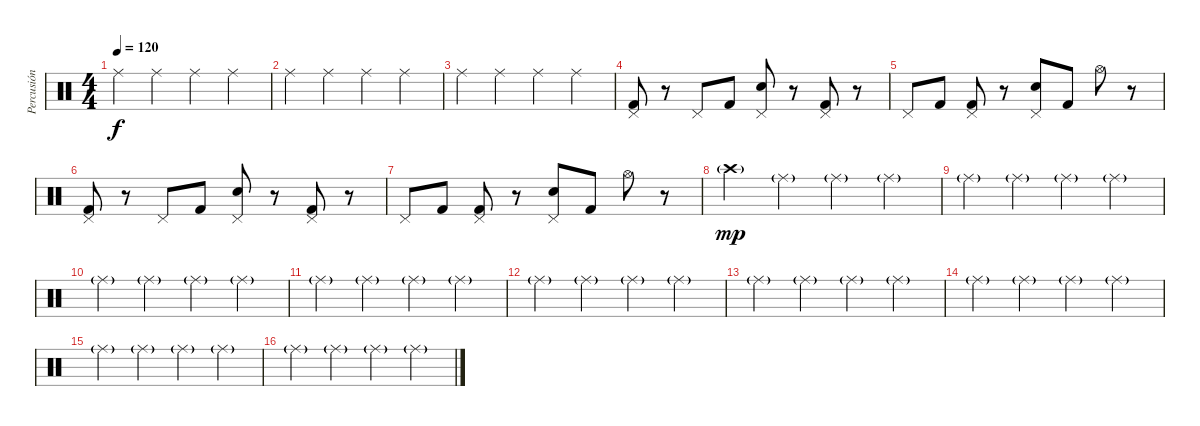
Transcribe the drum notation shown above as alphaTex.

\track ("Percusión" "Percusión") {instrument percussion}
\staff {score}
\articulation defaults
\ts (4 4)
\tempo 120
\clef neutral
\ks c "Ride (middle)".4{dy f} "Ride (middle)".4 "Ride (middle)".4 "Ride (middle)".4
|
"Ride (middle)".4 "Ride (middle)".4 "Ride (middle)".4 "Ride (middle)".4 |
"Ride (middle)".4 "Ride (middle)".4 "Ride (middle)".4 "Ride (middle)".4 |
("Pedal Hi-Hat (hit)" "Kick (hit) 2").8 r.8 "Pedal Hi-Hat (hit)".8 "Kick (hit) 2".8 ("Pedal Hi-Hat (hit)" "Electric Snare (hit)").8 r.8 ("Pedal Hi-Hat (hit)" "Kick (hit) 2").8 r.8 |
"Pedal Hi-Hat (hit)".8 "Kick (hit) 2".8 ("Pedal Hi-Hat (hit)" "Kick (hit) 2").8 r.8 ("Pedal Hi-Hat (hit)" "Electric Snare (hit)").8 "Kick (hit) 2".8 "Hi-Hat (open)".8 r.8 |
("Pedal Hi-Hat (hit)" "Kick (hit) 2").8 r.8 "Pedal Hi-Hat (hit)".8 "Kick (hit) 2".8 ("Pedal Hi-Hat (hit)" "Electric Snare (hit)").8 r.8 ("Pedal Hi-Hat (hit)" "Kick (hit) 2").8 r.8 |
"Pedal Hi-Hat (hit)".8 "Kick (hit) 2".8 ("Pedal Hi-Hat (hit)" "Kick (hit) 2").8 r.8 ("Pedal Hi-Hat (hit)" "Electric Snare (hit)").8 "Kick (hit) 2".8 "Hi-Hat (open)".8 r.8 |
"Crash high (hit)"{g}.4{dy mp} "Ride (middle)"{g}.4 "Ride (middle)"{g}.4 "Ride (middle)"{g}.4 |
"Ride (middle)"{g}.4 "Ride (middle)"{g}.4 "Ride (middle)"{g}.4 "Ride (middle)"{g}.4 |
"Ride (middle)"{g}.4 "Ride (middle)"{g}.4 "Ride (middle)"{g}.4 "Ride (middle)"{g}.4 |
"Ride (middle)"{g}.4 "Ride (middle)"{g}.4 "Ride (middle)"{g}.4 "Ride (middle)"{g}.4 |
"Ride (middle)"{g}.4 "Ride (middle)"{g}.4 "Ride (middle)"{g}.4 "Ride (middle)"{g}.4 |
"Ride (middle)"{g}.4 "Ride (middle)"{g}.4 "Ride (middle)"{g}.4 "Ride (middle)"{g}.4 |
"Ride (middle)"{g}.4 "Ride (middle)"{g}.4 "Ride (middle)"{g}.4 "Ride (middle)"{g}.4 |
"Ride (middle)"{g}.4 "Ride (middle)"{g}.4 "Ride (middle)"{g}.4 "Ride (middle)"{g}.4 |
"Ride (middle)"{g}.4 "Ride (middle)"{g}.4 "Ride (middle)"{g}.4 "Ride (middle)"{g}.4
